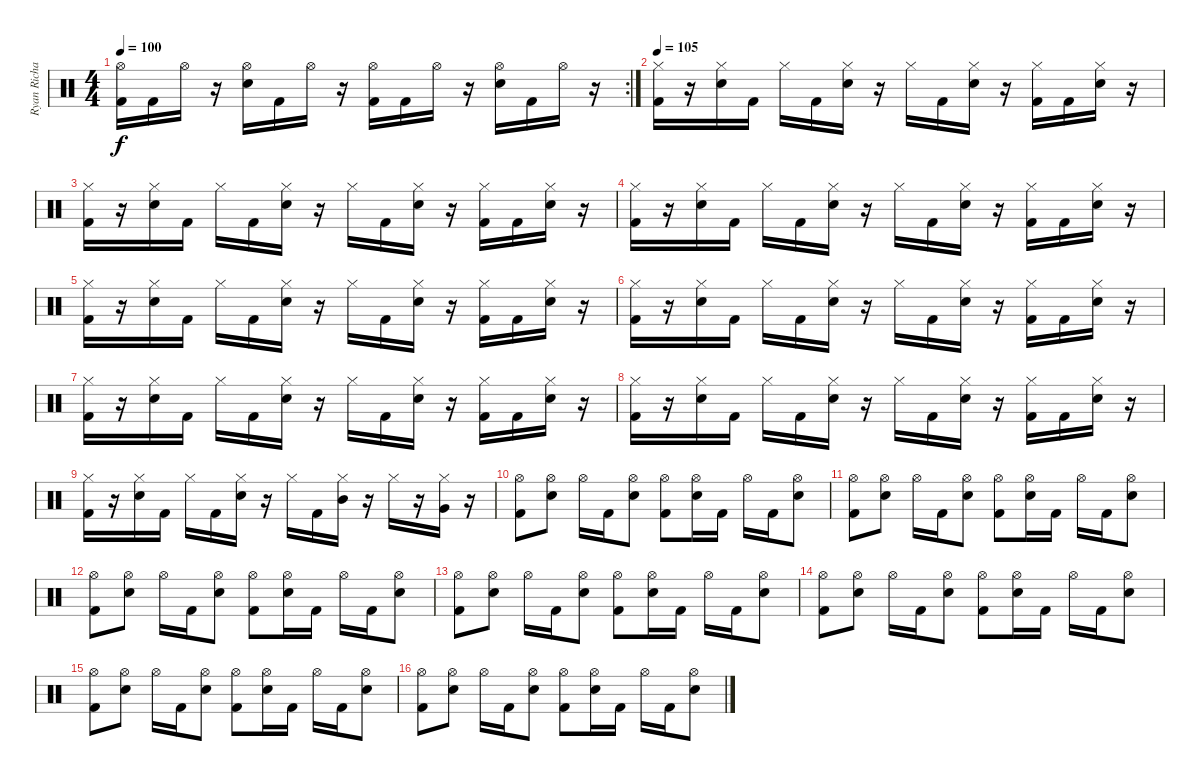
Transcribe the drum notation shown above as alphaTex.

\track ("Ryan Richards" "Ryan Richa") {instrument percussion}
\staff {score}
\articulation defaults
\rc 2
\ts (4 4)
\tempo 100
\clef neutral
\ks c
("Hi-Hat (open)" "Kick (hit) 2").16{dy f} "Kick (hit) 2".16 "Hi-Hat (open)".16 r.16 ("Hi-Hat (open)" "Snare (hit) 2").16 "Kick (hit) 2".16 "Hi-Hat (open)".16 r.16 ("Hi-Hat (open)" "Kick (hit) 2").16 "Kick (hit) 2".16 "Hi-Hat (open)".16 r.16 ("Hi-Hat (open)" "Snare (hit) 2").16 "Kick (hit) 2".16 "Hi-Hat (open)".16 r.16 |
\tempo 105
("Hi-Hat (closed)" "Kick (hit) 2").16 r.16 ("Hi-Hat (closed)" "Snare (hit) 2").16 "Kick (hit) 2".16 "Hi-Hat (closed)".16 "Kick (hit) 2".16 ("Hi-Hat (closed)" "Snare (hit) 2").16 r.16 "Hi-Hat (closed)".16 "Kick (hit) 2".16 ("Hi-Hat (closed)" "Snare (hit) 2").16 r.16 ("Hi-Hat (closed)" "Kick (hit) 2").16 "Kick (hit) 2".16 ("Hi-Hat (closed)" "Snare (hit) 2").16 r.16 |
("Hi-Hat (closed)" "Kick (hit) 2").16 r.16 ("Hi-Hat (closed)" "Snare (hit) 2").16 "Kick (hit) 2".16 "Hi-Hat (closed)".16 "Kick (hit) 2".16 ("Hi-Hat (closed)" "Snare (hit) 2").16 r.16 "Hi-Hat (closed)".16 "Kick (hit) 2".16 ("Hi-Hat (closed)" "Snare (hit) 2").16 r.16 ("Hi-Hat (closed)" "Kick (hit) 2").16 "Kick (hit) 2".16 ("Hi-Hat (closed)" "Snare (hit) 2").16 r.16 |
("Hi-Hat (closed)" "Kick (hit) 2").16 r.16 ("Hi-Hat (closed)" "Snare (hit) 2").16 "Kick (hit) 2".16 "Hi-Hat (closed)".16 "Kick (hit) 2".16 ("Hi-Hat (closed)" "Snare (hit) 2").16 r.16 "Hi-Hat (closed)".16 "Kick (hit) 2".16 ("Hi-Hat (closed)" "Snare (hit) 2").16 r.16 ("Hi-Hat (closed)" "Kick (hit) 2").16 "Kick (hit) 2".16 ("Hi-Hat (closed)" "Snare (hit) 2").16 r.16 |
("Hi-Hat (closed)" "Kick (hit) 2").16 r.16 ("Hi-Hat (closed)" "Snare (hit) 2").16 "Kick (hit) 2".16 "Hi-Hat (closed)".16 "Kick (hit) 2".16 ("Hi-Hat (closed)" "Snare (hit) 2").16 r.16 "Hi-Hat (closed)".16 "Kick (hit) 2".16 ("Hi-Hat (closed)" "Snare (hit) 2").16 r.16 ("Hi-Hat (closed)" "Kick (hit) 2").16 "Kick (hit) 2".16 ("Hi-Hat (closed)" "Snare (hit) 2").16 r.16 |
("Hi-Hat (closed)" "Kick (hit) 2").16 r.16 ("Hi-Hat (closed)" "Snare (hit) 2").16 "Kick (hit) 2".16 "Hi-Hat (closed)".16 "Kick (hit) 2".16 ("Hi-Hat (closed)" "Snare (hit) 2").16 r.16 "Hi-Hat (closed)".16 "Kick (hit) 2".16 ("Hi-Hat (closed)" "Snare (hit) 2").16 r.16 ("Hi-Hat (closed)" "Kick (hit) 2").16 "Kick (hit) 2".16 ("Hi-Hat (closed)" "Snare (hit) 2").16 r.16 |
("Hi-Hat (closed)" "Kick (hit) 2").16 r.16 ("Hi-Hat (closed)" "Snare (hit) 2").16 "Kick (hit) 2".16 "Hi-Hat (closed)".16 "Kick (hit) 2".16 ("Hi-Hat (closed)" "Snare (hit) 2").16 r.16 "Hi-Hat (closed)".16 "Kick (hit) 2".16 ("Hi-Hat (closed)" "Snare (hit) 2").16 r.16 ("Hi-Hat (closed)" "Kick (hit) 2").16 "Kick (hit) 2".16 ("Hi-Hat (closed)" "Snare (hit) 2").16 r.16 |
("Hi-Hat (closed)" "Kick (hit) 2").16 r.16 ("Hi-Hat (closed)" "Snare (hit) 2").16 "Kick (hit) 2".16 "Hi-Hat (closed)".16 "Kick (hit) 2".16 ("Hi-Hat (closed)" "Snare (hit) 2").16 r.16 "Hi-Hat (closed)".16 "Kick (hit) 2".16 ("Hi-Hat (closed)" "Snare (hit) 2").16 r.16 ("Hi-Hat (closed)" "Kick (hit) 2").16 "Kick (hit) 2".16 ("Hi-Hat (closed)" "Snare (hit) 2").16 r.16 |
("Hi-Hat (closed)" "Kick (hit) 2").16 r.16 ("Hi-Hat (closed)" "Snare (hit) 2").16 "Kick (hit) 2".16 "Hi-Hat (closed)".16 "Kick (hit) 2".16 ("Hi-Hat (closed)" "Snare (hit) 2").16 r.16 "Hi-Hat (closed)".16 "Kick (hit) 2".16 ("Hi-Hat (closed)" "Mid Tom (hit)").16 r.16 "Hi-Hat (closed)".16 r.16 ("Hi-Hat (closed)" "Very Low Tom (hit)").16 r.16 |
("Hi-Hat (open)" "Kick (hit) 2").8 ("Hi-Hat (open)" "Snare (hit) 2").8 "Hi-Hat (open)".16 "Kick (hit) 2".16 ("Hi-Hat (open)" "Snare (hit) 2").8 ("Hi-Hat (open)" "Kick (hit) 2").8 ("Hi-Hat (open)" "Snare (hit) 2").16 "Kick (hit) 2".16 "Hi-Hat (open)".16 "Kick (hit) 2".16 ("Hi-Hat (open)" "Snare (hit) 2").8 |
("Hi-Hat (open)" "Kick (hit) 2").8 ("Hi-Hat (open)" "Snare (hit) 2").8 "Hi-Hat (open)".16 "Kick (hit) 2".16 ("Hi-Hat (open)" "Snare (hit) 2").8 ("Hi-Hat (open)" "Kick (hit) 2").8 ("Hi-Hat (open)" "Snare (hit) 2").16 "Kick (hit) 2".16 "Hi-Hat (open)".16 "Kick (hit) 2".16 ("Hi-Hat (open)" "Snare (hit) 2").8 |
("Hi-Hat (open)" "Kick (hit) 2").8 ("Hi-Hat (open)" "Snare (hit) 2").8 "Hi-Hat (open)".16 "Kick (hit) 2".16 ("Hi-Hat (open)" "Snare (hit) 2").8 ("Hi-Hat (open)" "Kick (hit) 2").8 ("Hi-Hat (open)" "Snare (hit) 2").16 "Kick (hit) 2".16 "Hi-Hat (open)".16 "Kick (hit) 2".16 ("Hi-Hat (open)" "Snare (hit) 2").8 |
("Hi-Hat (open)" "Kick (hit) 2").8 ("Hi-Hat (open)" "Snare (hit) 2").8 "Hi-Hat (open)".16 "Kick (hit) 2".16 ("Hi-Hat (open)" "Snare (hit) 2").8 ("Hi-Hat (open)" "Kick (hit) 2").8 ("Hi-Hat (open)" "Snare (hit) 2").16 "Kick (hit) 2".16 "Hi-Hat (open)".16 "Kick (hit) 2".16 ("Hi-Hat (open)" "Snare (hit) 2").8 |
("Hi-Hat (open)" "Kick (hit) 2").8 ("Hi-Hat (open)" "Snare (hit) 2").8 "Hi-Hat (open)".16 "Kick (hit) 2".16 ("Hi-Hat (open)" "Snare (hit) 2").8 ("Hi-Hat (open)" "Kick (hit) 2").8 ("Hi-Hat (open)" "Snare (hit) 2").16 "Kick (hit) 2".16 "Hi-Hat (open)".16 "Kick (hit) 2".16 ("Hi-Hat (open)" "Snare (hit) 2").8 |
("Hi-Hat (open)" "Kick (hit) 2").8 ("Hi-Hat (open)" "Snare (hit) 2").8 "Hi-Hat (open)".16 "Kick (hit) 2".16 ("Hi-Hat (open)" "Snare (hit) 2").8 ("Hi-Hat (open)" "Kick (hit) 2").8 ("Hi-Hat (open)" "Snare (hit) 2").16 "Kick (hit) 2".16 "Hi-Hat (open)".16 "Kick (hit) 2".16 ("Hi-Hat (open)" "Snare (hit) 2").8 |
("Hi-Hat (open)" "Kick (hit) 2").8 ("Hi-Hat (open)" "Snare (hit) 2").8 "Hi-Hat (open)".16 "Kick (hit) 2".16 ("Hi-Hat (open)" "Snare (hit) 2").8 ("Hi-Hat (open)" "Kick (hit) 2").8 ("Hi-Hat (open)" "Snare (hit) 2").16 "Kick (hit) 2".16 "Hi-Hat (open)".16 "Kick (hit) 2".16 ("Hi-Hat (open)" "Snare (hit) 2").8
